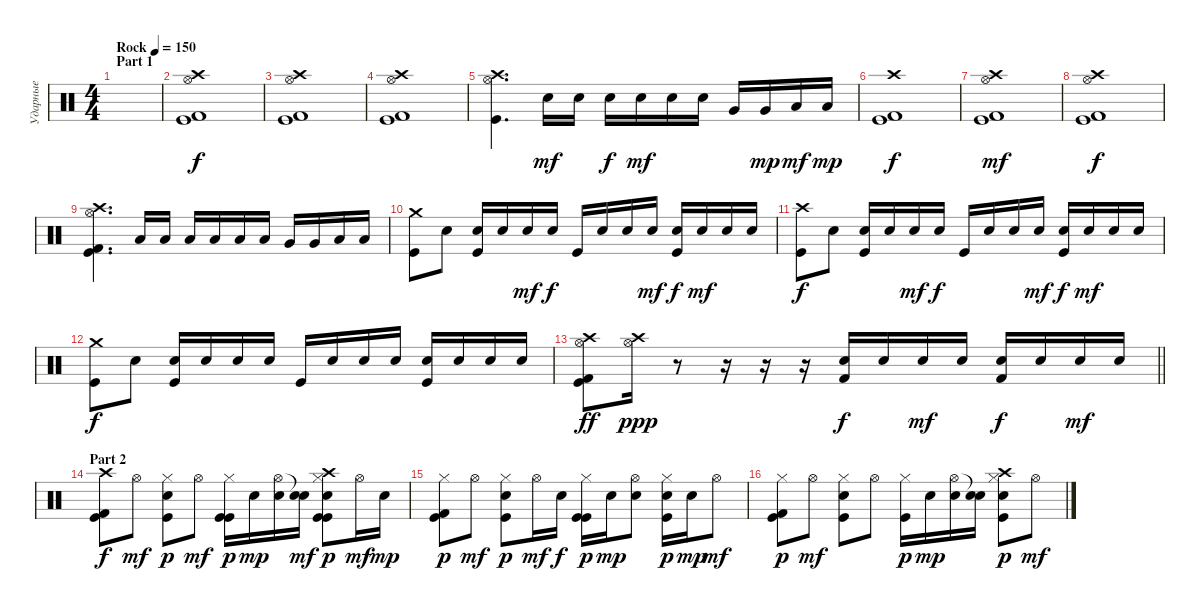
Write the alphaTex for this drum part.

\track ("Ударные" "Ударные") {instrument percussion}
\staff {score}
\articulation defaults
\ts (4 4)
\section ("" "Part 1")
\tempo (150 "Rock")
\clef neutral
\ks c
|
("Crash high (hit)" "Hi-Hat (open)" "Kick (hit) 2" "Kick (hit)").1 |
("Crash high (hit)" "Hi-Hat (open)" "Kick (hit) 2" "Kick (hit)").1 |
("Crash high (hit)" "Hi-Hat (open)" "Kick (hit) 2" "Kick (hit)").1{dy f} |
("Crash high (hit)" "Hi-Hat (open)" "Kick (hit)").4{d} "Electric Snare (hit)".16{dy mf} "Electric Snare (hit)".16 "Electric Snare (hit)".16{dy f} "Electric Snare (hit)".16{dy mf} "Electric Snare (hit)".16 "Electric Snare (hit)".16 "Very Low Tom (hit)".16 "Very Low Tom (hit)".16{dy mp} "Low Floor Tom (hit)".16{dy mf} "Low Floor Tom (hit)".16{dy mp} |
("Crash high (hit)" "Kick (hit) 2" "Kick (hit)").1{dy f} |
("Crash high (hit)" "Hi-Hat (open)" "Kick (hit) 2" "Kick (hit)").1{dy mf} |
("Crash high (hit)" "Hi-Hat (open)" "Kick (hit) 2" "Kick (hit)").1{dy f} |
("Crash high (hit)" "Hi-Hat (open)" "Kick (hit) 2" "Kick (hit)").4{d} "Low Tom (hit)".16 "Low Tom (hit)".16 "Low Tom (hit)".16 "Low Tom (hit)".16 "Low Tom (hit)".16 "Low Tom (hit)".16 "Very Low Tom (hit)".16 "Very Low Tom (hit)".16 "Low Floor Tom (hit)".16 "Low Floor Tom (hit)".16 |
("Crash medium (hit)" "Kick (hit)").8 "Electric Snare (hit)".8 ("Electric Snare (hit)" "Kick (hit)").16 "Electric Snare (hit)".16 "Electric Snare (hit)".16{dy mf} "Electric Snare (hit)".16{dy f} "Kick (hit)".16 "Electric Snare (hit)".16 "Electric Snare (hit)".16 "Electric Snare (hit)".16{dy mf} ("Electric Snare (hit)" "Kick (hit)").16{dy f} "Electric Snare (hit)".16{dy mf} "Electric Snare (hit)".16 "Electric Snare (hit)".16 |
("Crash high (hit)" "Kick (hit)").8{dy f} "Electric Snare (hit)".8 ("Electric Snare (hit)" "Kick (hit)").16 "Electric Snare (hit)".16 "Electric Snare (hit)".16{dy mf} "Electric Snare (hit)".16{dy f} "Kick (hit)".16 "Electric Snare (hit)".16 "Electric Snare (hit)".16 "Electric Snare (hit)".16{dy mf} ("Electric Snare (hit)" "Kick (hit)").16{dy f} "Electric Snare (hit)".16{dy mf} "Electric Snare (hit)".16 "Electric Snare (hit)".16 |
("Crash medium (hit)" "Kick (hit)").8{dy f} "Electric Snare (hit)".8 ("Electric Snare (hit)" "Kick (hit)").16 "Electric Snare (hit)".16 "Electric Snare (hit)".16 "Electric Snare (hit)".16 "Kick (hit)".16 "Electric Snare (hit)".16 "Electric Snare (hit)".16 "Electric Snare (hit)".16 ("Electric Snare (hit)" "Kick (hit)").16 "Electric Snare (hit)".16 "Electric Snare (hit)".16 "Electric Snare (hit)".16 |
\barLineRight lightlight
("Hi-Hat (open)" "Crash high (hit)" "Kick (hit) 2" "Kick (hit)").8{dy ff} ("Hi-Hat (open)" "Crash high (hit)").16{dy ppp} r.8 r.16 r.16 r.16 ("Electric Snare (hit)" "Kick (hit) 2").16{dy f} "Electric Snare (hit)".16 "Electric Snare (hit)".16{dy mf} "Electric Snare (hit)".16 ("Electric Snare (hit)" "Kick (hit) 2").16{dy f} "Electric Snare (hit)".16 "Electric Snare (hit)".16{dy mf} "Electric Snare (hit)".16 |
\section ("" "Part 2")
("Kick (hit) 2" "Kick (hit)" "Crash high (hit)").8{dy f} "Hi-Hat (open)".8{dy mf} ("Kick (hit)" "Hi-Hat (closed)" "Electric Snare (hit)").8{dy p} "Hi-Hat (open)".8{dy mf} ("Kick (hit)" "Hi-Hat (closed)" "Kick (hit)").16{dy p} "Electric Snare (hit)".16{dy mp} ("Hi-Hat (open)" "Electric Snare (hit)").16 ("Snare (hit)"{t} "Electric Snare (hit)").16{dy mf} ("Kick (hit)" "Hi-Hat (closed)" "Electric Snare (hit)" "Crash high (hit)" "Kick (hit)").8{dy p} "Hi-Hat (open)".16{dy mf} "Snare (hit) 2".16{dy mp} |
("Kick (hit) 2" "Hi-Hat (closed)" "Kick (hit)").8{dy p} "Hi-Hat (open)".8{dy mf} ("Kick (hit)" "Hi-Hat (closed)" "Electric Snare (hit)").8{dy p} "Hi-Hat (open)".16{dy mf} "Electric Snare (hit)".16{dy f} ("Kick (hit)" "Hi-Hat (closed)" "Kick (hit)").16{dy p} "Electric Snare (hit)".16{dy mp} ("Hi-Hat (open)" "Electric Snare (hit)").8 ("Kick (hit)" "Hi-Hat (closed)" "Electric Snare (hit)").16{dy p} "Electric Snare (hit)".16{dy mp} "Hi-Hat (open)".8{dy mf} |
("Kick (hit) 2" "Kick (hit)" "Hi-Hat (closed)").8{dy p} "Hi-Hat (open)".8{dy mf} ("Kick (hit)" "Hi-Hat (closed)" "Electric Snare (hit)").8 "Hi-Hat (open)".8 ("Kick (hit)" "Hi-Hat (closed)").16{dy p} "Electric Snare (hit)".16{dy mp} ("Hi-Hat (open)" "Electric Snare (hit)").16 ("Snare (hit)"{t} "Electric Snare (hit)").16 ("Kick (hit)" "Hi-Hat (closed)" "Electric Snare (hit)" "Crash high (hit)").8{dy p} "Hi-Hat (open)".8{dy mf}
